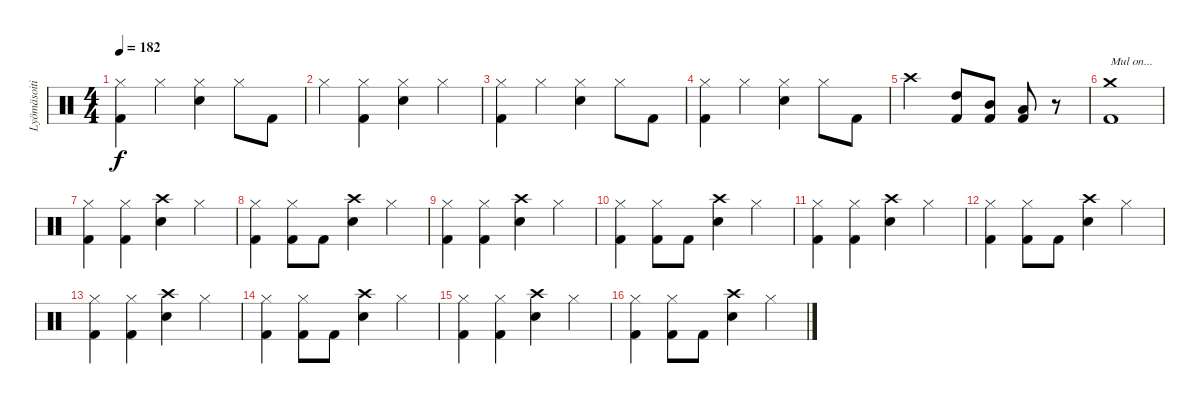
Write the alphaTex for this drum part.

\track ("Lyömäsoitin" "Lyömäsoiti") {instrument percussion}
\staff {score}
\articulation defaults
\ts (4 4)
\tempo 182
\clef neutral
\ks c
("Hi-Hat (closed)" "Kick (hit) 2").4{dy f} "Hi-Hat (closed)".4 ("Hi-Hat (closed)" "Electric Snare (hit)").4 "Hi-Hat (closed)".8 "Kick (hit) 2".8 |
"Hi-Hat (closed)".4 ("Hi-Hat (closed)" "Kick (hit) 2").4 ("Hi-Hat (closed)" "Electric Snare (hit)").4 "Hi-Hat (closed)".4 |
("Hi-Hat (closed)" "Kick (hit) 2").4 "Hi-Hat (closed)".4 ("Hi-Hat (closed)" "Electric Snare (hit)").4 "Hi-Hat (closed)".8 "Kick (hit) 2".8 |
("Hi-Hat (closed)" "Kick (hit) 2").4 "Hi-Hat (closed)".4 ("Hi-Hat (closed)" "Electric Snare (hit)").4 "Hi-Hat (closed)".8 "Kick (hit) 2".8 |
"Crash high (hit)".2 ("High Tom (hit)" "Kick (hit) 2").8 ("Mid Tom (hit)" "Kick (hit) 2").8 ("Low Tom (hit)" "Kick (hit) 2").8 r.8 |
("Crash medium (hit)" "Kick (hit) 2").1{txt "Mul on..."} |
("Hi-Hat (closed)" "Kick (hit) 2").4 ("Hi-Hat (closed)" "Kick (hit) 2").4 ("Crash high (hit)" "Electric Snare (hit)").4 "Hi-Hat (closed)".4 |
("Hi-Hat (closed)" "Kick (hit) 2").4 ("Hi-Hat (closed)" "Kick (hit) 2").8 "Kick (hit) 2".8 ("Crash high (hit)" "Electric Snare (hit)").4 "Hi-Hat (closed)".4 |
("Hi-Hat (closed)" "Kick (hit) 2").4 ("Hi-Hat (closed)" "Kick (hit) 2").4 ("Crash high (hit)" "Electric Snare (hit)").4 "Hi-Hat (closed)".4 |
("Hi-Hat (closed)" "Kick (hit) 2").4 ("Hi-Hat (closed)" "Kick (hit) 2").8 "Kick (hit) 2".8 ("Crash high (hit)" "Electric Snare (hit)").4 "Hi-Hat (closed)".4 |
("Hi-Hat (closed)" "Kick (hit) 2").4 ("Hi-Hat (closed)" "Kick (hit) 2").4 ("Crash high (hit)" "Electric Snare (hit)").4 "Hi-Hat (closed)".4 |
("Hi-Hat (closed)" "Kick (hit) 2").4 ("Hi-Hat (closed)" "Kick (hit) 2").8 "Kick (hit) 2".8 ("Crash high (hit)" "Electric Snare (hit)").4 "Hi-Hat (closed)".4 |
("Hi-Hat (closed)" "Kick (hit) 2").4 ("Hi-Hat (closed)" "Kick (hit) 2").4 ("Crash high (hit)" "Electric Snare (hit)").4 "Hi-Hat (closed)".4 |
("Hi-Hat (closed)" "Kick (hit) 2").4 ("Hi-Hat (closed)" "Kick (hit) 2").8 "Kick (hit) 2".8 ("Crash high (hit)" "Electric Snare (hit)").4 "Hi-Hat (closed)".4 |
("Hi-Hat (closed)" "Kick (hit) 2").4 ("Hi-Hat (closed)" "Kick (hit) 2").4 ("Crash high (hit)" "Electric Snare (hit)").4 "Hi-Hat (closed)".4 |
("Hi-Hat (closed)" "Kick (hit) 2").4 ("Hi-Hat (closed)" "Kick (hit) 2").8 "Kick (hit) 2".8 ("Crash high (hit)" "Electric Snare (hit)").4 "Hi-Hat (closed)".4
